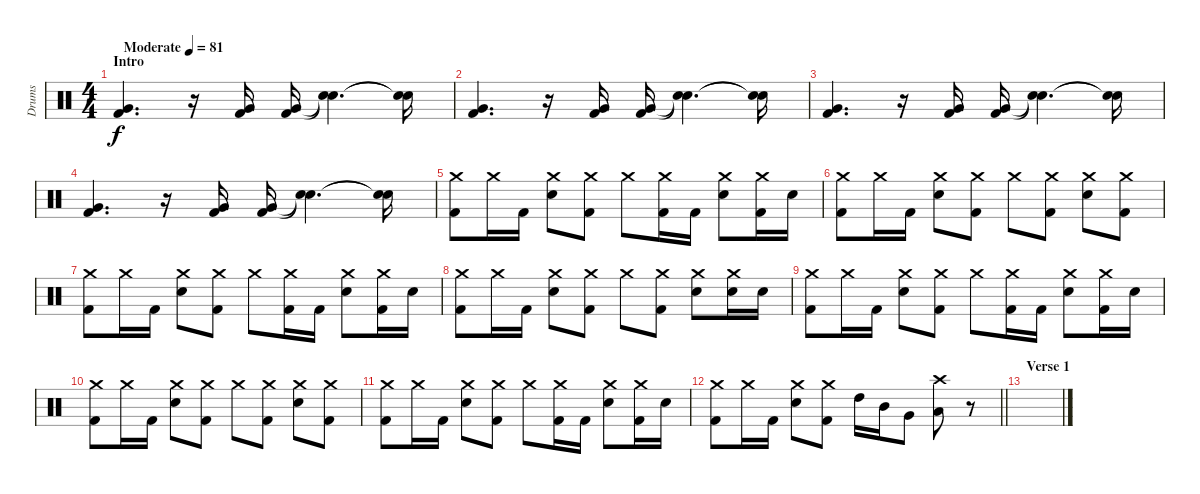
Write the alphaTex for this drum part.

\track ("Drums" "Drums") {instrument percussion}
\staff {score}
\articulation defaults
\ts (4 4)
\section ("" "Intro")
\tempo (81 "Moderate")
\clef neutral
\ks c
("Kick (hit) 2" "Very Low Tom (hit)").4{d dy f} r.16 ("Kick (hit) 2" "Very Low Tom (hit)").16 ("Kick (hit) 2" "Very Low Tom (hit)").16 ("Snare (hit)"{t} "Snare (hit)"{t}).4{d} ("Snare (hit)"{t} "Snare (hit)"{t}).16 |
("Kick (hit) 2" "Very Low Tom (hit)").4{d} r.16 ("Kick (hit) 2" "Very Low Tom (hit)").16 ("Kick (hit) 2" "Very Low Tom (hit)").16 ("Snare (hit)"{t} "Snare (hit)"{t}).4{d} ("Snare (hit)"{t} "Snare (hit)"{t}).16 |
("Kick (hit) 2" "Very Low Tom (hit)").4{d} r.16 ("Kick (hit) 2" "Very Low Tom (hit)").16 ("Kick (hit) 2" "Very Low Tom (hit)").16 ("Snare (hit)"{t} "Snare (hit)"{t}).4{d} ("Snare (hit)"{t} "Snare (hit)"{t}).16 |
("Kick (hit) 2" "Very Low Tom (hit)").4{d} r.16 ("Kick (hit) 2" "Very Low Tom (hit)").16 ("Kick (hit) 2" "Very Low Tom (hit)").16 ("Snare (hit)"{t} "Snare (hit)"{t}).4{d} ("Snare (hit)"{t} "Snare (hit)"{t}).16 |
("Kick (hit) 2" "Crash medium (hit)").8 "Crash medium (hit)".16 "Kick (hit) 2".16 ("Electric Snare (hit)" "Crash medium (hit)").8 ("Kick (hit) 2" "Crash medium (hit)").8 "Crash medium (hit)".8 ("Kick (hit) 2" "Crash medium (hit)").16 "Kick (hit) 2".16 ("Electric Snare (hit)" "Crash medium (hit)").8 ("Kick (hit) 2" "Crash medium (hit)").16 "Electric Snare (hit)".16 |
("Kick (hit) 2" "Crash medium (hit)").8 "Crash medium (hit)".16 "Kick (hit) 2".16 ("Electric Snare (hit)" "Crash medium (hit)").8 ("Kick (hit) 2" "Crash medium (hit)").8 "Crash medium (hit)".8 ("Kick (hit) 2" "Crash medium (hit)").8 ("Electric Snare (hit)" "Crash medium (hit)").8 ("Kick (hit) 2" "Crash medium (hit)").8 |
("Kick (hit) 2" "Crash medium (hit)").8 "Crash medium (hit)".16 "Kick (hit) 2".16 ("Electric Snare (hit)" "Crash medium (hit)").8 ("Kick (hit) 2" "Crash medium (hit)").8 "Crash medium (hit)".8 ("Kick (hit) 2" "Crash medium (hit)").16 "Kick (hit) 2".16 ("Electric Snare (hit)" "Crash medium (hit)").8 ("Kick (hit) 2" "Crash medium (hit)").16 "Electric Snare (hit)".16 |
("Kick (hit) 2" "Crash medium (hit)").8 "Crash medium (hit)".16 "Kick (hit) 2".16 ("Electric Snare (hit)" "Crash medium (hit)").8 ("Kick (hit) 2" "Crash medium (hit)").8 "Crash medium (hit)".8 ("Kick (hit) 2" "Crash medium (hit)").8 ("Electric Snare (hit)" "Crash medium (hit)").8 ("Electric Snare (hit)" "Crash medium (hit)").16 "Electric Snare (hit)".16 |
("Kick (hit) 2" "Crash medium (hit)").8 "Crash medium (hit)".16 "Kick (hit) 2".16 ("Electric Snare (hit)" "Crash medium (hit)").8 ("Kick (hit) 2" "Crash medium (hit)").8 "Crash medium (hit)".8 ("Kick (hit) 2" "Crash medium (hit)").16 "Kick (hit) 2".16 ("Electric Snare (hit)" "Crash medium (hit)").8 ("Kick (hit) 2" "Crash medium (hit)").16 "Electric Snare (hit)".16 |
("Kick (hit) 2" "Crash medium (hit)").8 "Crash medium (hit)".16 "Kick (hit) 2".16 ("Electric Snare (hit)" "Crash medium (hit)").8 ("Kick (hit) 2" "Crash medium (hit)").8 "Crash medium (hit)".8 ("Kick (hit) 2" "Crash medium (hit)").8 ("Electric Snare (hit)" "Crash medium (hit)").8 ("Kick (hit) 2" "Crash medium (hit)").8 |
("Kick (hit) 2" "Crash medium (hit)").8 "Crash medium (hit)".16 "Kick (hit) 2".16 ("Electric Snare (hit)" "Crash medium (hit)").8 ("Kick (hit) 2" "Crash medium (hit)").8 "Crash medium (hit)".8 ("Kick (hit) 2" "Crash medium (hit)").16 "Kick (hit) 2".16 ("Electric Snare (hit)" "Crash medium (hit)").8 ("Kick (hit) 2" "Crash medium (hit)").16 "Electric Snare (hit)".16 |
\barLineRight lightlight
("Kick (hit) 2" "Crash medium (hit)").8 "Crash medium (hit)".16 "Kick (hit) 2".16 ("Electric Snare (hit)" "Crash medium (hit)").8 ("Kick (hit) 2" "Crash medium (hit)").8 "High Tom (hit)".16 "Mid Tom (hit)".16 "Very Low Tom (hit)".8 ("Low Tom (hit)" "Crash high (hit)").8 r.8 |
\section ("" "Verse 1")
